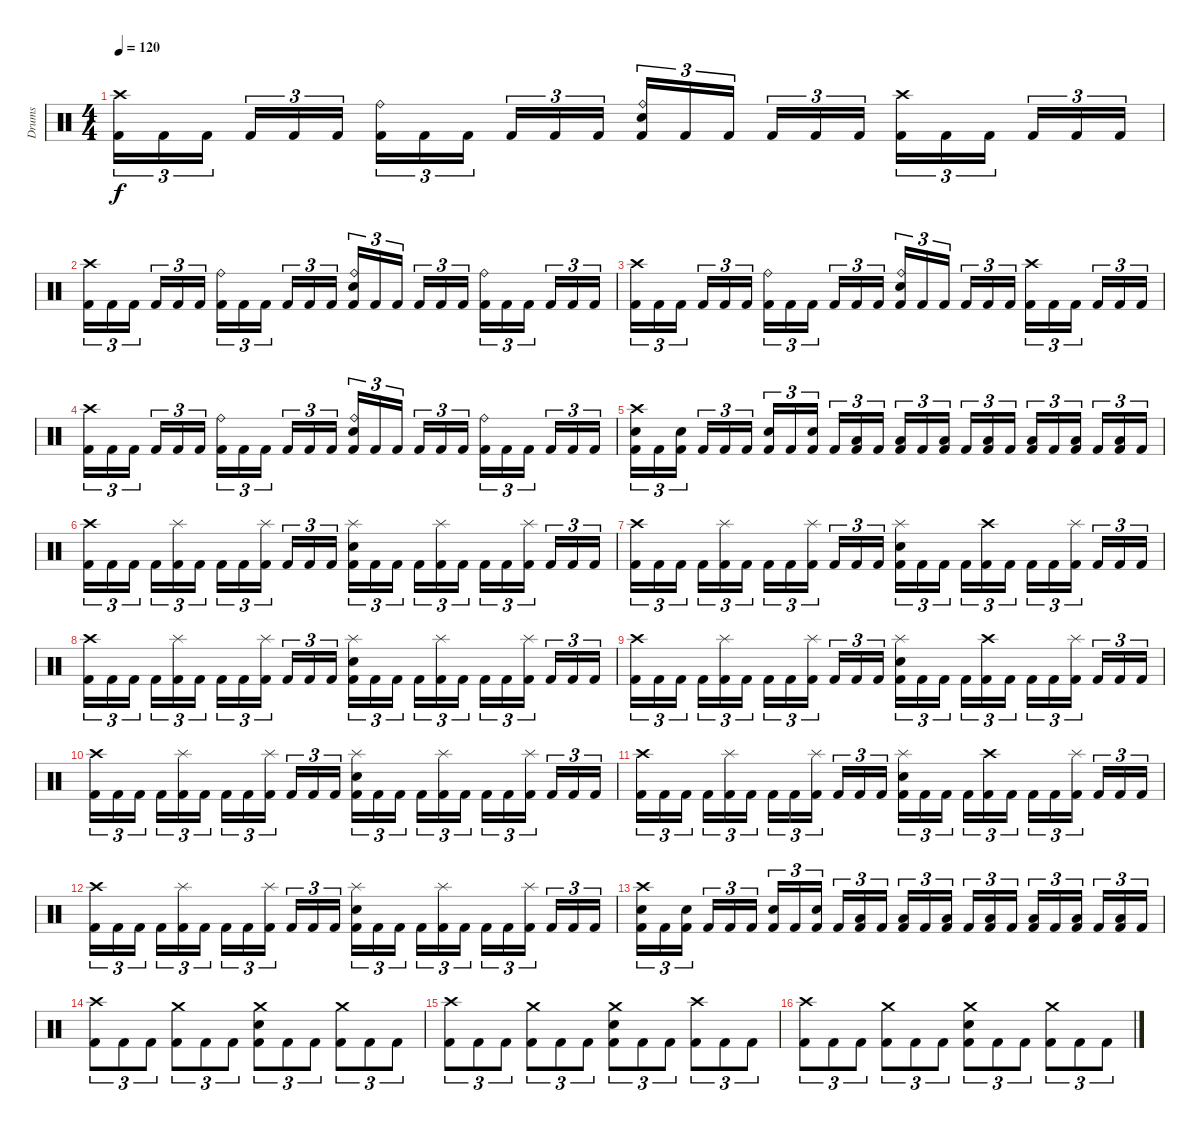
\track ("Drums" "Drums") {instrument percussion}
\staff {score}
\articulation defaults
\ts (4 4)
\tempo 120
\clef neutral
\ks c
("Crash high (hit)" "Kick (hit) 2").16{tu (3 2) dy f} "Kick (hit) 2".16{tu (3 2)} "Kick (hit) 2".16{tu (3 2)} "Kick (hit) 2".16{tu (3 2)} "Kick (hit) 2".16{tu (3 2)} "Kick (hit) 2".16{tu (3 2)} ("Ride (bell)" "Kick (hit) 2").16{tu (3 2)} "Kick (hit) 2".16{tu (3 2)} "Kick (hit) 2".16{tu (3 2)} "Kick (hit) 2".16{tu (3 2)} "Kick (hit) 2".16{tu (3 2)} "Kick (hit) 2".16{tu (3 2)} ("Ride (bell)" "Electric Snare (hit)" "Kick (hit) 2").16{tu (3 2)} "Kick (hit) 2".16{tu (3 2)} "Kick (hit) 2".16{tu (3 2)} "Kick (hit) 2".16{tu (3 2)} "Kick (hit) 2".16{tu (3 2)} "Kick (hit) 2".16{tu (3 2)} ("Crash high (hit)" "Kick (hit) 2").16{tu (3 2)} "Kick (hit) 2".16{tu (3 2)} "Kick (hit) 2".16{tu (3 2)} "Kick (hit) 2".16{tu (3 2)} "Kick (hit) 2".16{tu (3 2)} "Kick (hit) 2".16{tu (3 2)} |
("Crash high (hit)" "Kick (hit) 2").16{tu (3 2)} "Kick (hit) 2".16{tu (3 2)} "Kick (hit) 2".16{tu (3 2)} "Kick (hit) 2".16{tu (3 2)} "Kick (hit) 2".16{tu (3 2)} "Kick (hit) 2".16{tu (3 2)} ("Ride (bell)" "Kick (hit) 2").16{tu (3 2)} "Kick (hit) 2".16{tu (3 2)} "Kick (hit) 2".16{tu (3 2)} "Kick (hit) 2".16{tu (3 2)} "Kick (hit) 2".16{tu (3 2)} "Kick (hit) 2".16{tu (3 2)} ("Ride (bell)" "Electric Snare (hit)" "Kick (hit) 2").16{tu (3 2)} "Kick (hit) 2".16{tu (3 2)} "Kick (hit) 2".16{tu (3 2)} "Kick (hit) 2".16{tu (3 2)} "Kick (hit) 2".16{tu (3 2)} "Kick (hit) 2".16{tu (3 2)} ("Ride (bell)" "Kick (hit) 2").16{tu (3 2)} "Kick (hit) 2".16{tu (3 2)} "Kick (hit) 2".16{tu (3 2)} "Kick (hit) 2".16{tu (3 2)} "Kick (hit) 2".16{tu (3 2)} "Kick (hit) 2".16{tu (3 2)} |
("Crash high (hit)" "Kick (hit) 2").16{tu (3 2)} "Kick (hit) 2".16{tu (3 2)} "Kick (hit) 2".16{tu (3 2)} "Kick (hit) 2".16{tu (3 2)} "Kick (hit) 2".16{tu (3 2)} "Kick (hit) 2".16{tu (3 2)} ("Ride (bell)" "Kick (hit) 2").16{tu (3 2)} "Kick (hit) 2".16{tu (3 2)} "Kick (hit) 2".16{tu (3 2)} "Kick (hit) 2".16{tu (3 2)} "Kick (hit) 2".16{tu (3 2)} "Kick (hit) 2".16{tu (3 2)} ("Ride (bell)" "Electric Snare (hit)" "Kick (hit) 2").16{tu (3 2)} "Kick (hit) 2".16{tu (3 2)} "Kick (hit) 2".16{tu (3 2)} "Kick (hit) 2".16{tu (3 2)} "Kick (hit) 2".16{tu (3 2)} "Kick (hit) 2".16{tu (3 2)} ("Crash high (hit)" "Kick (hit) 2").16{tu (3 2)} "Kick (hit) 2".16{tu (3 2)} "Kick (hit) 2".16{tu (3 2)} "Kick (hit) 2".16{tu (3 2)} "Kick (hit) 2".16{tu (3 2)} "Kick (hit) 2".16{tu (3 2)} |
("Crash high (hit)" "Kick (hit) 2").16{tu (3 2)} "Kick (hit) 2".16{tu (3 2)} "Kick (hit) 2".16{tu (3 2)} "Kick (hit) 2".16{tu (3 2)} "Kick (hit) 2".16{tu (3 2)} "Kick (hit) 2".16{tu (3 2)} ("Ride (bell)" "Kick (hit) 2").16{tu (3 2)} "Kick (hit) 2".16{tu (3 2)} "Kick (hit) 2".16{tu (3 2)} "Kick (hit) 2".16{tu (3 2)} "Kick (hit) 2".16{tu (3 2)} "Kick (hit) 2".16{tu (3 2)} ("Ride (bell)" "Electric Snare (hit)" "Kick (hit) 2").16{tu (3 2)} "Kick (hit) 2".16{tu (3 2)} "Kick (hit) 2".16{tu (3 2)} "Kick (hit) 2".16{tu (3 2)} "Kick (hit) 2".16{tu (3 2)} "Kick (hit) 2".16{tu (3 2)} ("Ride (bell)" "Kick (hit) 2").16{tu (3 2)} "Kick (hit) 2".16{tu (3 2)} "Kick (hit) 2".16{tu (3 2)} "Kick (hit) 2".16{tu (3 2)} "Kick (hit) 2".16{tu (3 2)} "Kick (hit) 2".16{tu (3 2)} |
("Crash high (hit)" "Electric Snare (hit)" "Kick (hit) 2").16{tu (3 2)} "Kick (hit) 2".16{tu (3 2)} ("Electric Snare (hit)" "Kick (hit) 2").16{tu (3 2)} "Kick (hit) 2".16{tu (3 2)} "Kick (hit) 2".16{tu (3 2)} "Kick (hit) 2".16{tu (3 2)} ("Electric Snare (hit)" "Kick (hit) 2").16{tu (3 2)} "Kick (hit) 2".16{tu (3 2)} ("Electric Snare (hit)" "Kick (hit) 2").16{tu (3 2)} "Kick (hit) 2".16{tu (3 2)} ("Low Tom (hit)" "Kick (hit) 2").16{tu (3 2)} "Kick (hit) 2".16{tu (3 2)} ("Low Tom (hit)" "Kick (hit) 2").16{tu (3 2)} "Kick (hit) 2".16{tu (3 2)} ("Low Tom (hit)" "Kick (hit) 2").16{tu (3 2)} "Kick (hit) 2".16{tu (3 2)} ("Low Tom (hit)" "Kick (hit) 2").16{tu (3 2)} "Kick (hit) 2".16{tu (3 2)} ("Low Floor Tom (hit)" "Kick (hit) 2").16{tu (3 2)} "Kick (hit) 2".16{tu (3 2)} ("Low Floor Tom (hit)" "Kick (hit) 2").16{tu (3 2)} "Kick (hit) 2".16{tu (3 2)} ("Low Floor Tom (hit)" "Kick (hit) 2").16{tu (3 2)} "Kick (hit) 2".16{tu (3 2)} |
("Crash high (hit)" "Kick (hit) 2").16{tu (3 2)} "Kick (hit) 2".16{tu (3 2)} "Kick (hit) 2".16{tu (3 2)} "Kick (hit) 2".16{tu (3 2)} ("Splash (hit)" "Kick (hit) 2").16{tu (3 2)} "Kick (hit) 2".16{tu (3 2)} "Kick (hit) 2".16{tu (3 2)} "Kick (hit) 2".16{tu (3 2)} ("Splash (hit)" "Kick (hit) 2").16{tu (3 2)} "Kick (hit) 2".16{tu (3 2)} "Kick (hit) 2".16{tu (3 2)} "Kick (hit) 2".16{tu (3 2)} ("Splash (hit)" "Electric Snare (hit)" "Kick (hit) 2").16{tu (3 2)} "Kick (hit) 2".16{tu (3 2)} "Kick (hit) 2".16{tu (3 2)} "Kick (hit) 2".16{tu (3 2)} ("Splash (hit)" "Kick (hit) 2").16{tu (3 2)} "Kick (hit) 2".16{tu (3 2)} "Kick (hit) 2".16{tu (3 2)} "Kick (hit) 2".16{tu (3 2)} ("Splash (hit)" "Kick (hit) 2").16{tu (3 2)} "Kick (hit) 2".16{tu (3 2)} "Kick (hit) 2".16{tu (3 2)} "Kick (hit) 2".16{tu (3 2)} |
("Crash high (hit)" "Kick (hit) 2").16{tu (3 2)} "Kick (hit) 2".16{tu (3 2)} "Kick (hit) 2".16{tu (3 2)} "Kick (hit) 2".16{tu (3 2)} ("Splash (hit)" "Kick (hit) 2").16{tu (3 2)} "Kick (hit) 2".16{tu (3 2)} "Kick (hit) 2".16{tu (3 2)} "Kick (hit) 2".16{tu (3 2)} ("Splash (hit)" "Kick (hit) 2").16{tu (3 2)} "Kick (hit) 2".16{tu (3 2)} "Kick (hit) 2".16{tu (3 2)} "Kick (hit) 2".16{tu (3 2)} ("Splash (hit)" "Electric Snare (hit)" "Kick (hit) 2").16{tu (3 2)} "Kick (hit) 2".16{tu (3 2)} "Kick (hit) 2".16{tu (3 2)} "Kick (hit) 2".16{tu (3 2)} ("Crash high (hit)" "Kick (hit) 2").16{tu (3 2)} "Kick (hit) 2".16{tu (3 2)} "Kick (hit) 2".16{tu (3 2)} "Kick (hit) 2".16{tu (3 2)} ("Splash (hit)" "Kick (hit) 2").16{tu (3 2)} "Kick (hit) 2".16{tu (3 2)} "Kick (hit) 2".16{tu (3 2)} "Kick (hit) 2".16{tu (3 2)} |
("Crash high (hit)" "Kick (hit) 2").16{tu (3 2)} "Kick (hit) 2".16{tu (3 2)} "Kick (hit) 2".16{tu (3 2)} "Kick (hit) 2".16{tu (3 2)} ("Splash (hit)" "Kick (hit) 2").16{tu (3 2)} "Kick (hit) 2".16{tu (3 2)} "Kick (hit) 2".16{tu (3 2)} "Kick (hit) 2".16{tu (3 2)} ("Splash (hit)" "Kick (hit) 2").16{tu (3 2)} "Kick (hit) 2".16{tu (3 2)} "Kick (hit) 2".16{tu (3 2)} "Kick (hit) 2".16{tu (3 2)} ("Splash (hit)" "Electric Snare (hit)" "Kick (hit) 2").16{tu (3 2)} "Kick (hit) 2".16{tu (3 2)} "Kick (hit) 2".16{tu (3 2)} "Kick (hit) 2".16{tu (3 2)} ("Splash (hit)" "Kick (hit) 2").16{tu (3 2)} "Kick (hit) 2".16{tu (3 2)} "Kick (hit) 2".16{tu (3 2)} "Kick (hit) 2".16{tu (3 2)} ("Splash (hit)" "Kick (hit) 2").16{tu (3 2)} "Kick (hit) 2".16{tu (3 2)} "Kick (hit) 2".16{tu (3 2)} "Kick (hit) 2".16{tu (3 2)} |
("Crash high (hit)" "Kick (hit) 2").16{tu (3 2)} "Kick (hit) 2".16{tu (3 2)} "Kick (hit) 2".16{tu (3 2)} "Kick (hit) 2".16{tu (3 2)} ("Splash (hit)" "Kick (hit) 2").16{tu (3 2)} "Kick (hit) 2".16{tu (3 2)} "Kick (hit) 2".16{tu (3 2)} "Kick (hit) 2".16{tu (3 2)} ("Splash (hit)" "Kick (hit) 2").16{tu (3 2)} "Kick (hit) 2".16{tu (3 2)} "Kick (hit) 2".16{tu (3 2)} "Kick (hit) 2".16{tu (3 2)} ("Splash (hit)" "Electric Snare (hit)" "Kick (hit) 2").16{tu (3 2)} "Kick (hit) 2".16{tu (3 2)} "Kick (hit) 2".16{tu (3 2)} "Kick (hit) 2".16{tu (3 2)} ("Crash high (hit)" "Kick (hit) 2").16{tu (3 2)} "Kick (hit) 2".16{tu (3 2)} "Kick (hit) 2".16{tu (3 2)} "Kick (hit) 2".16{tu (3 2)} ("Splash (hit)" "Kick (hit) 2").16{tu (3 2)} "Kick (hit) 2".16{tu (3 2)} "Kick (hit) 2".16{tu (3 2)} "Kick (hit) 2".16{tu (3 2)} |
("Crash high (hit)" "Kick (hit) 2").16{tu (3 2)} "Kick (hit) 2".16{tu (3 2)} "Kick (hit) 2".16{tu (3 2)} "Kick (hit) 2".16{tu (3 2)} ("Splash (hit)" "Kick (hit) 2").16{tu (3 2)} "Kick (hit) 2".16{tu (3 2)} "Kick (hit) 2".16{tu (3 2)} "Kick (hit) 2".16{tu (3 2)} ("Splash (hit)" "Kick (hit) 2").16{tu (3 2)} "Kick (hit) 2".16{tu (3 2)} "Kick (hit) 2".16{tu (3 2)} "Kick (hit) 2".16{tu (3 2)} ("Splash (hit)" "Electric Snare (hit)" "Kick (hit) 2").16{tu (3 2)} "Kick (hit) 2".16{tu (3 2)} "Kick (hit) 2".16{tu (3 2)} "Kick (hit) 2".16{tu (3 2)} ("Splash (hit)" "Kick (hit) 2").16{tu (3 2)} "Kick (hit) 2".16{tu (3 2)} "Kick (hit) 2".16{tu (3 2)} "Kick (hit) 2".16{tu (3 2)} ("Splash (hit)" "Kick (hit) 2").16{tu (3 2)} "Kick (hit) 2".16{tu (3 2)} "Kick (hit) 2".16{tu (3 2)} "Kick (hit) 2".16{tu (3 2)} |
("Crash high (hit)" "Kick (hit) 2").16{tu (3 2)} "Kick (hit) 2".16{tu (3 2)} "Kick (hit) 2".16{tu (3 2)} "Kick (hit) 2".16{tu (3 2)} ("Splash (hit)" "Kick (hit) 2").16{tu (3 2)} "Kick (hit) 2".16{tu (3 2)} "Kick (hit) 2".16{tu (3 2)} "Kick (hit) 2".16{tu (3 2)} ("Splash (hit)" "Kick (hit) 2").16{tu (3 2)} "Kick (hit) 2".16{tu (3 2)} "Kick (hit) 2".16{tu (3 2)} "Kick (hit) 2".16{tu (3 2)} ("Splash (hit)" "Electric Snare (hit)" "Kick (hit) 2").16{tu (3 2)} "Kick (hit) 2".16{tu (3 2)} "Kick (hit) 2".16{tu (3 2)} "Kick (hit) 2".16{tu (3 2)} ("Crash high (hit)" "Kick (hit) 2").16{tu (3 2)} "Kick (hit) 2".16{tu (3 2)} "Kick (hit) 2".16{tu (3 2)} "Kick (hit) 2".16{tu (3 2)} ("Splash (hit)" "Kick (hit) 2").16{tu (3 2)} "Kick (hit) 2".16{tu (3 2)} "Kick (hit) 2".16{tu (3 2)} "Kick (hit) 2".16{tu (3 2)} |
("Crash high (hit)" "Kick (hit) 2").16{tu (3 2)} "Kick (hit) 2".16{tu (3 2)} "Kick (hit) 2".16{tu (3 2)} "Kick (hit) 2".16{tu (3 2)} ("Splash (hit)" "Kick (hit) 2").16{tu (3 2)} "Kick (hit) 2".16{tu (3 2)} "Kick (hit) 2".16{tu (3 2)} "Kick (hit) 2".16{tu (3 2)} ("Splash (hit)" "Kick (hit) 2").16{tu (3 2)} "Kick (hit) 2".16{tu (3 2)} "Kick (hit) 2".16{tu (3 2)} "Kick (hit) 2".16{tu (3 2)} ("Splash (hit)" "Electric Snare (hit)" "Kick (hit) 2").16{tu (3 2)} "Kick (hit) 2".16{tu (3 2)} "Kick (hit) 2".16{tu (3 2)} "Kick (hit) 2".16{tu (3 2)} ("Splash (hit)" "Kick (hit) 2").16{tu (3 2)} "Kick (hit) 2".16{tu (3 2)} "Kick (hit) 2".16{tu (3 2)} "Kick (hit) 2".16{tu (3 2)} ("Splash (hit)" "Kick (hit) 2").16{tu (3 2)} "Kick (hit) 2".16{tu (3 2)} "Kick (hit) 2".16{tu (3 2)} "Kick (hit) 2".16{tu (3 2)} |
("Crash high (hit)" "Electric Snare (hit)" "Kick (hit) 2").16{tu (3 2)} "Kick (hit) 2".16{tu (3 2)} ("Electric Snare (hit)" "Kick (hit) 2").16{tu (3 2)} "Kick (hit) 2".16{tu (3 2)} "Kick (hit) 2".16{tu (3 2)} "Kick (hit) 2".16{tu (3 2)} ("Electric Snare (hit)" "Kick (hit) 2").16{tu (3 2)} "Kick (hit) 2".16{tu (3 2)} ("Electric Snare (hit)" "Kick (hit) 2").16{tu (3 2)} "Kick (hit) 2".16{tu (3 2)} ("Low Tom (hit)" "Kick (hit) 2").16{tu (3 2)} "Kick (hit) 2".16{tu (3 2)} ("Low Tom (hit)" "Kick (hit) 2").16{tu (3 2)} "Kick (hit) 2".16{tu (3 2)} ("Low Tom (hit)" "Kick (hit) 2").16{tu (3 2)} "Kick (hit) 2".16{tu (3 2)} ("Low Tom (hit)" "Kick (hit) 2").16{tu (3 2)} "Kick (hit) 2".16{tu (3 2)} ("Low Floor Tom (hit)" "Kick (hit) 2").16{tu (3 2)} "Kick (hit) 2".16{tu (3 2)} ("Low Floor Tom (hit)" "Kick (hit) 2").16{tu (3 2)} "Kick (hit) 2".16{tu (3 2)} ("Low Floor Tom (hit)" "Kick (hit) 2").16{tu (3 2)} "Kick (hit) 2".16{tu (3 2)} |
\section ("" "")
("Crash high (hit)" "Kick (hit) 2").8{tu (3 2)} "Kick (hit) 2".8{tu (3 2)} "Kick (hit) 2".8{tu (3 2)} ("Crash medium (hit)" "Kick (hit) 2").8{tu (3 2)} "Kick (hit) 2".8{tu (3 2)} "Kick (hit) 2".8{tu (3 2)} ("Crash medium (hit)" "Electric Snare (hit)" "Kick (hit) 2").8{tu (3 2)} "Kick (hit) 2".8{tu (3 2)} "Kick (hit) 2".8{tu (3 2)} ("Crash medium (hit)" "Kick (hit) 2").8{tu (3 2)} "Kick (hit) 2".8{tu (3 2)} "Kick (hit) 2".8{tu (3 2)} |
("Crash high (hit)" "Kick (hit) 2").8{tu (3 2)} "Kick (hit) 2".8{tu (3 2)} "Kick (hit) 2".8{tu (3 2)} ("Crash medium (hit)" "Kick (hit) 2").8{tu (3 2)} "Kick (hit) 2".8{tu (3 2)} "Kick (hit) 2".8{tu (3 2)} ("Crash medium (hit)" "Electric Snare (hit)" "Kick (hit) 2").8{tu (3 2)} "Kick (hit) 2".8{tu (3 2)} "Kick (hit) 2".8{tu (3 2)} ("Crash high (hit)" "Kick (hit) 2").8{tu (3 2)} "Kick (hit) 2".8{tu (3 2)} "Kick (hit) 2".8{tu (3 2)} |
("Crash high (hit)" "Kick (hit) 2").8{tu (3 2)} "Kick (hit) 2".8{tu (3 2)} "Kick (hit) 2".8{tu (3 2)} ("Crash medium (hit)" "Kick (hit) 2").8{tu (3 2)} "Kick (hit) 2".8{tu (3 2)} "Kick (hit) 2".8{tu (3 2)} ("Crash medium (hit)" "Electric Snare (hit)" "Kick (hit) 2").8{tu (3 2)} "Kick (hit) 2".8{tu (3 2)} "Kick (hit) 2".8{tu (3 2)} ("Crash medium (hit)" "Kick (hit) 2").8{tu (3 2)} "Kick (hit) 2".8{tu (3 2)} "Kick (hit) 2".8{tu (3 2)}
